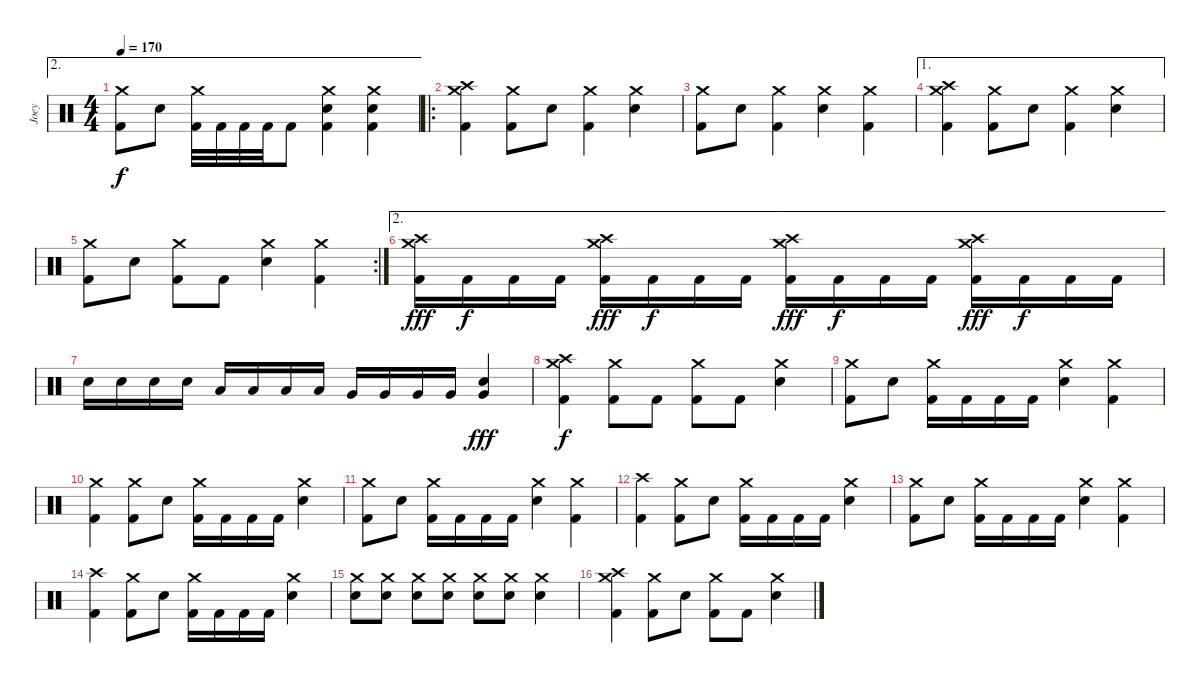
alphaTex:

\track ("Joey" "Joey") {instrument percussion}
\staff {score}
\articulation defaults
\ae 2
\ts (4 4)
\tempo 170
\clef neutral
\ks c
("Crash medium (hit)" "Kick (hit) 2").8{dy f} "Electric Snare (hit)".8 ("Crash medium (hit)" "Kick (hit) 2").32 "Kick (hit) 2".32 "Kick (hit) 2".32 "Kick (hit) 2".32 "Kick (hit) 2".8 ("Crash medium (hit)" "Electric Snare (hit)" "Kick (hit) 2").4 ("Crash medium (hit)" "Electric Snare (hit)" "Kick (hit) 2").4 |
\ro
("Crash high (hit)" "Crash medium (hit)" "Kick (hit) 2").4 ("Crash medium (hit)" "Kick (hit) 2").8 "Electric Snare (hit)".8 ("Crash medium (hit)" "Kick (hit) 2").4 ("Crash medium (hit)" "Electric Snare (hit)").4 |
("Crash medium (hit)" "Kick (hit) 2").8 "Electric Snare (hit)".8 ("Crash medium (hit)" "Kick (hit) 2").4 ("Crash medium (hit)" "Electric Snare (hit)").4 ("Crash medium (hit)" "Kick (hit) 2").4 |
\ae 1
("Crash high (hit)" "Crash medium (hit)" "Kick (hit) 2").4 ("Crash medium (hit)" "Kick (hit) 2").8 "Electric Snare (hit)".8 ("Crash medium (hit)" "Kick (hit) 2").4 ("Crash medium (hit)" "Electric Snare (hit)").4 |
\rc 2
("Crash medium (hit)" "Kick (hit) 2").8 "Electric Snare (hit)".8 ("Crash medium (hit)" "Kick (hit) 2").8 "Kick (hit) 2".8 ("Crash medium (hit)" "Electric Snare (hit)").4 ("Crash medium (hit)" "Kick (hit) 2").4 |
\ae 2
("Crash medium (hit)" "Crash high (hit)" "Kick (hit) 2").16{dy fff} "Kick (hit) 2".16{dy f} "Kick (hit) 2".16 "Kick (hit) 2".16 ("Crash medium (hit)" "Crash high (hit)" "Kick (hit) 2").16{dy fff} "Kick (hit) 2".16{dy f} "Kick (hit) 2".16 "Kick (hit) 2".16 ("Crash medium (hit)" "Crash high (hit)" "Kick (hit) 2").16{dy fff} "Kick (hit) 2".16{dy f} "Kick (hit) 2".16 "Kick (hit) 2".16 ("Crash medium (hit)" "Crash high (hit)" "Kick (hit) 2").16{dy fff} "Kick (hit) 2".16{dy f} "Kick (hit) 2".16 "Kick (hit) 2".16 |
"Electric Snare (hit)".16 "Electric Snare (hit)".16 "Electric Snare (hit)".16 "Electric Snare (hit)".16 "Low Tom (hit)".16 "Low Tom (hit)".16 "Low Tom (hit)".16 "Low Tom (hit)".16 "Very Low Tom (hit)".16 "Very Low Tom (hit)".16 "Very Low Tom (hit)".16 "Very Low Tom (hit)".16 ("Electric Snare (hit)" "Very Low Tom (hit)").4{dy fff} |
("Crash high (hit)" "Crash medium (hit)" "Kick (hit) 2").4{dy f} ("Crash medium (hit)" "Kick (hit) 2").8 "Kick (hit) 2".8 ("Crash medium (hit)" "Kick (hit) 2").8 "Kick (hit) 2".8 ("Crash medium (hit)" "Electric Snare (hit)").4 |
("Crash medium (hit)" "Kick (hit) 2").8 "Electric Snare (hit)".8 ("Crash medium (hit)" "Kick (hit) 2").16 "Kick (hit) 2".16 "Kick (hit) 2".16 "Kick (hit) 2".16 ("Crash medium (hit)" "Electric Snare (hit)").4 ("Crash medium (hit)" "Kick (hit) 2").4 |
("Crash medium (hit)" "Kick (hit) 2").4 ("Crash medium (hit)" "Kick (hit) 2").8 "Electric Snare (hit)".8 ("Crash medium (hit)" "Kick (hit) 2").16 "Kick (hit) 2".16 "Kick (hit) 2".16 "Kick (hit) 2".16 ("Crash medium (hit)" "Electric Snare (hit)").4 |
("Crash medium (hit)" "Kick (hit) 2").8 "Electric Snare (hit)".8 ("Crash medium (hit)" "Kick (hit) 2").16 "Kick (hit) 2".16 "Kick (hit) 2".16 "Kick (hit) 2".16 ("Crash medium (hit)" "Electric Snare (hit)").4 ("Crash medium (hit)" "Kick (hit) 2").4 |
("Crash high (hit)" "Kick (hit) 2").4 ("Crash medium (hit)" "Kick (hit) 2").8 "Electric Snare (hit)".8 ("Crash medium (hit)" "Kick (hit) 2").16 "Kick (hit) 2".16 "Kick (hit) 2".16 "Kick (hit) 2".16 ("Crash medium (hit)" "Electric Snare (hit)").4 |
("Crash medium (hit)" "Kick (hit) 2").8 "Electric Snare (hit)".8 ("Crash medium (hit)" "Kick (hit) 2").16 "Kick (hit) 2".16 "Kick (hit) 2".16 "Kick (hit) 2".16 ("Crash medium (hit)" "Electric Snare (hit)").4 ("Crash medium (hit)" "Kick (hit) 2").4 |
("Crash high (hit)" "Kick (hit) 2").4 ("Crash medium (hit)" "Kick (hit) 2").8 "Electric Snare (hit)".8 ("Crash medium (hit)" "Kick (hit) 2").16 "Kick (hit) 2".16 "Kick (hit) 2".16 "Kick (hit) 2".16 ("Crash medium (hit)" "Electric Snare (hit)").4 |
("Crash medium (hit)" "Electric Snare (hit)").8 ("Crash medium (hit)" "Electric Snare (hit)").8 ("Crash medium (hit)" "Electric Snare (hit)").8 ("Crash medium (hit)" "Electric Snare (hit)").8 ("Crash medium (hit)" "Electric Snare (hit)").8 ("Crash medium (hit)" "Electric Snare (hit)").8 ("Crash medium (hit)" "Electric Snare (hit)").4 |
("Crash high (hit)" "Crash medium (hit)" "Kick (hit) 2").4 ("Crash medium (hit)" "Kick (hit) 2").8 "Electric Snare (hit)".8 ("Crash medium (hit)" "Kick (hit) 2").8 "Kick (hit) 2".8 ("Crash medium (hit)" "Electric Snare (hit)").4
